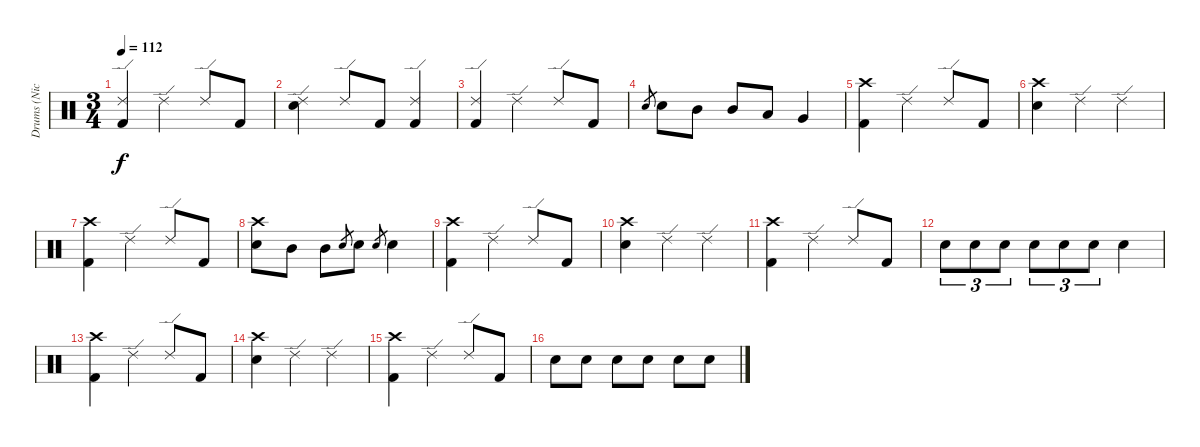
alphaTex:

\track ("Drums (Nick Mason)" "Drums (Nic") {instrument percussion}
\staff {score}
\articulation defaults
\ts (3 4)
\tempo 112
\clef neutral
\ks c
("Ride (edge) 2" "Kick (hit) 2").4{dy f} "Ride (edge) 2".4 "Ride (edge) 2".8 "Kick (hit) 2".8 |
("Ride (edge) 2" "Electric Snare (hit)").4 "Ride (edge) 2".8 "Kick (hit) 2".8 ("Ride (edge) 2" "Kick (hit) 2").4 |
("Ride (edge) 2" "Kick (hit) 2").4 "Ride (edge) 2".4 "Ride (edge) 2".8 "Kick (hit) 2".8 |
"Electric Snare (hit)".8{gr} "Electric Snare (hit)".8 "Mid Tom (hit)".8 "Mid Tom (hit)".8 "Low Tom (hit)".8 "Very Low Tom (hit)".4 |
("Crash high (hit)" "Kick (hit) 2").4 "Ride (edge) 2".4 "Ride (edge) 2".8 "Kick (hit) 2".8 |
("Crash high (hit)" "Electric Snare (hit)").4 "Ride (edge) 2".4 "Ride (edge) 2".4 |
("Crash high (hit)" "Kick (hit) 2").4 "Ride (edge) 2".4 "Ride (edge) 2".8 "Kick (hit) 2".8 |
("Crash high (hit)" "Electric Snare (hit)").8 "Mid Tom (hit)".8 "Mid Tom (hit)".8 "Electric Snare (hit)".8{gr} "Electric Snare (hit)".8 "Electric Snare (hit)".8{gr} "Electric Snare (hit)".4 |
("Crash high (hit)" "Kick (hit) 2").4 "Ride (edge) 2".4 "Ride (edge) 2".8 "Kick (hit) 2".8 |
("Crash high (hit)" "Electric Snare (hit)").4 "Ride (edge) 2".4 "Ride (edge) 2".4 |
("Crash high (hit)" "Kick (hit) 2").4 "Ride (edge) 2".4 "Ride (edge) 2".8 "Kick (hit) 2".8 |
"Electric Snare (hit)".8{tu (3 2)} "Electric Snare (hit)".8{tu (3 2)} "Electric Snare (hit)".8{tu (3 2)} "Electric Snare (hit)".8{tu (3 2)} "Electric Snare (hit)".8{tu (3 2)} "Electric Snare (hit)".8{tu (3 2)} "Electric Snare (hit)".4 |
("Crash high (hit)" "Kick (hit) 2").4 "Ride (edge) 2".4 "Ride (edge) 2".8 "Kick (hit) 2".8 |
("Crash high (hit)" "Electric Snare (hit)").4 "Ride (edge) 2".4 "Ride (edge) 2".4 |
("Crash high (hit)" "Kick (hit) 2").4 "Ride (edge) 2".4 "Ride (edge) 2".8 "Kick (hit) 2".8 |
"Electric Snare (hit)".8 "Electric Snare (hit)".8 "Electric Snare (hit)".8 "Electric Snare (hit)".8 "Electric Snare (hit)".8 "Electric Snare (hit)".8
